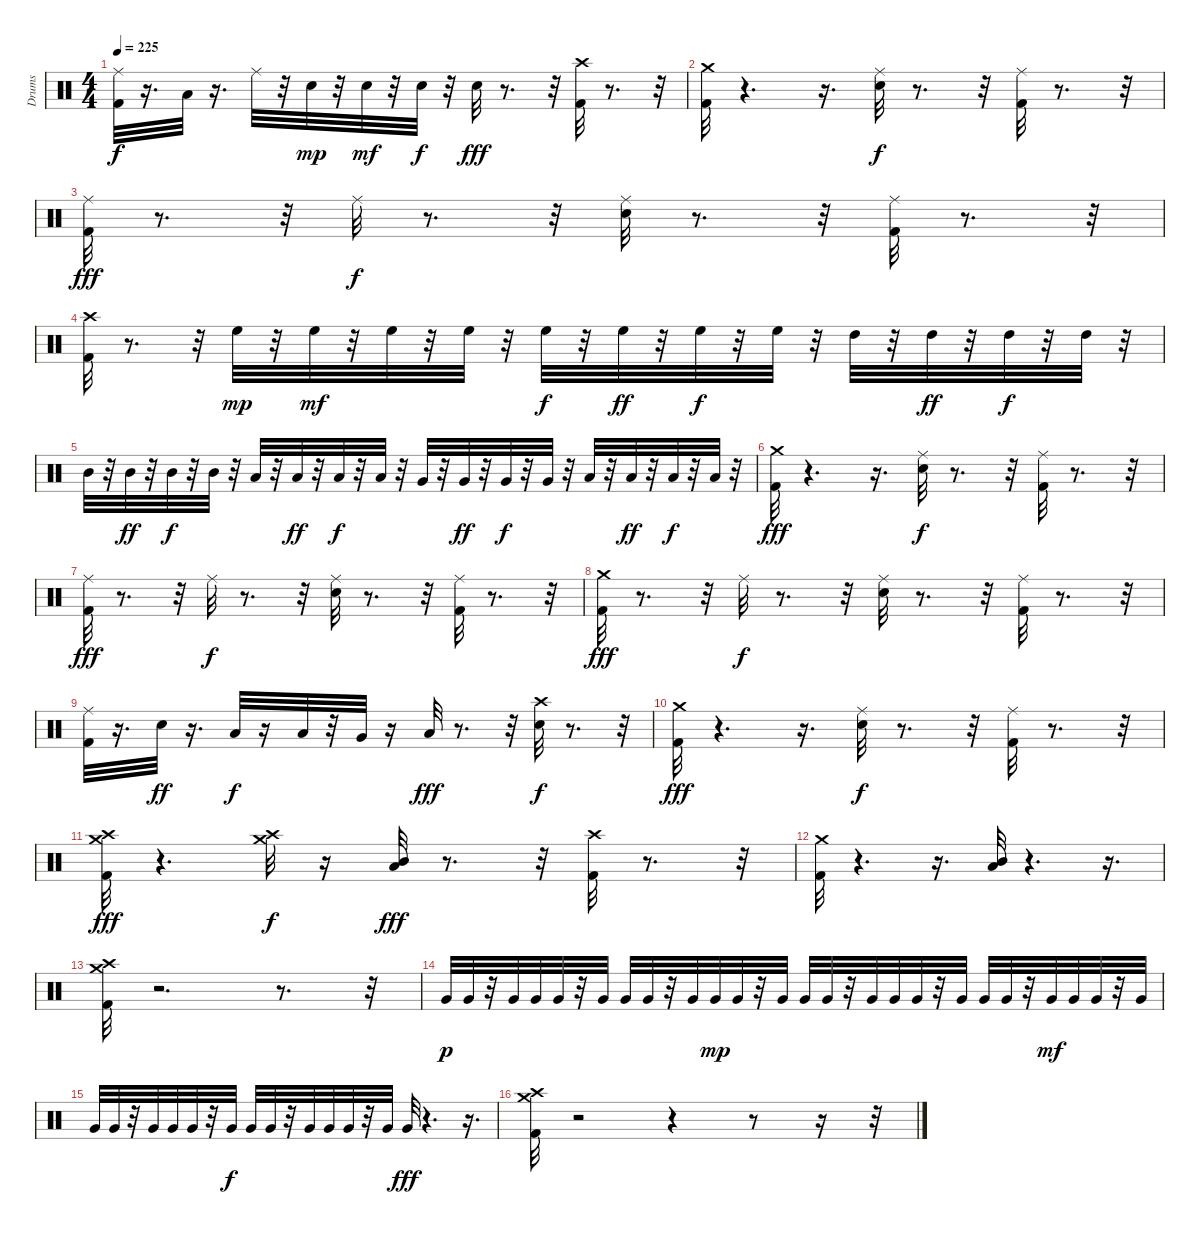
\track ("Drums" "Drums") {instrument percussion}
\staff {score}
\articulation defaults
\ts (4 4)
\tempo 225
\clef neutral
\ks c
("Kick (hit) 2" "Ride (middle)").32{dy f} r.16{d} "Low Floor Tom (hit)".32 r.16{d} "Ride (middle)".32 r.32 "Snare (hit) 2".32{dy mp} r.32 "Snare (hit) 2".32{dy mf} r.32 "Snare (hit) 2".32{dy f} r.32 "Snare (hit) 2".32{dy fff} r.8{d} r.32 ("Crash high (hit)" "Kick (hit) 2").32 r.8{d} r.32 |
("Crash medium (hit)" "Kick (hit) 2").32 r.4{d} r.16{d} ("Ride (middle)" "Snare (hit) 2").32{dy f} r.8{d} r.32 ("Kick (hit) 2" "Ride (middle)").32 r.8{d} r.32 |
("Kick (hit) 2" "Ride (middle)").32{dy fff} r.8{d} r.32 "Ride (middle)".32{dy f} r.8{d} r.32 ("Snare (hit) 2" "Ride (middle)").32 r.8{d} r.32 ("Kick (hit) 2" "Ride (middle)").32 r.8{d} r.32 |
("Crash high (hit)" "Kick (hit) 2").32 r.8{d} r.32 "High Floor Tom (hit)".32{dy mp} r.32 "High Floor Tom (hit)".32{dy mf} r.32 "High Floor Tom (hit)".32 r.32 "High Floor Tom (hit)".32 r.32 "High Floor Tom (hit)".32{dy f} r.32 "High Floor Tom (hit)".32{dy ff} r.32 "High Floor Tom (hit)".32{dy f} r.32 "High Floor Tom (hit)".32 r.32 "High Tom (hit)".32 r.32 "High Tom (hit)".32{dy ff} r.32 "High Tom (hit)".32{dy f} r.32 "High Tom (hit)".32 r.32 |
"Mid Tom (hit)".32 r.32 "Mid Tom (hit)".32{dy ff} r.32 "Mid Tom (hit)".32{dy f} r.32 "Mid Tom (hit)".32 r.32 "Low Tom (hit)".32 r.32 "Low Tom (hit)".32{dy ff} r.32 "Low Tom (hit)".32{dy f} r.32 "Low Tom (hit)".32 r.32 "Very Low Tom (hit)".32 r.32 "Very Low Tom (hit)".32{dy ff} r.32 "Very Low Tom (hit)".32{dy f} r.32 "Very Low Tom (hit)".32 r.32 "Low Floor Tom (hit)".32 r.32 "Low Floor Tom (hit)".32{dy ff} r.32 "Low Floor Tom (hit)".32{dy f} r.32 "Low Floor Tom (hit)".32 r.32 |
("Crash medium (hit)" "Kick (hit) 2").32{dy fff} r.4{d} r.16{d} ("Snare (hit) 2" "Ride (middle)").32{dy f} r.8{d} r.32 ("Kick (hit) 2" "Ride (middle)").32 r.8{d} r.32 |
("Kick (hit) 2" "Ride (middle)").32{dy fff} r.8{d} r.32 "Ride (middle)".32{dy f} r.8{d} r.32 ("Snare (hit) 2" "Ride (middle)").32 r.8{d} r.32 ("Kick (hit) 2" "Ride (middle)").32 r.8{d} r.32 |
("Crash medium (hit)" "Kick (hit) 2").32{dy fff} r.8{d} r.32 "Ride (middle)".32{dy f} r.8{d} r.32 ("Snare (hit) 2" "Ride (middle)").32 r.8{d} r.32 ("Kick (hit) 2" "Ride (middle)").32 r.8{d} r.32 |
("Kick (hit) 2" "Ride (middle)").32 r.16{d} "Snare (hit) 2".32{dy ff} r.16{d} "Low Tom (hit)".32{dy f} r.16 "Low Tom (hit)".32 r.32 "Very Low Tom (hit)".32 r.16 "Low Floor Tom (hit)".32{dy fff} r.8{d} r.32 ("Snare (hit) 2" "Crash high (hit)").32{dy f} r.8{d} r.32 |
("Crash medium (hit)" "Kick (hit) 2").32{dy fff} r.4{d} r.16{d} ("Ride (middle)" "Snare (hit) 2").32{dy f} r.8{d} r.32 ("Kick (hit) 2" "Ride (middle)").32 r.8{d} r.32 |
("Crash medium (hit)" "Crash high (hit)" "Kick (hit) 2").32{dy fff} r.4{d} ("Crash medium (hit)" "Crash high (hit)").32{dy f} r.16 ("Mid Tom (hit)" "Low Floor Tom (hit)").32{dy fff} r.8{d} r.32 ("Crash high (hit)" "Kick (hit) 2").32 r.8{d} r.32 |
("Crash medium (hit)" "Kick (hit) 2").32 r.4{d} r.16{d} ("Low Floor Tom (hit)" "Mid Tom (hit)").32 r.4{d} r.16{d} |
("Crash medium (hit)" "Crash high (hit)" "Kick (hit) 2").32 r.2{d} r.8{d} r.32 |
"Very Low Tom (hit)".32{dy p} "Very Low Tom (hit)".32 r.32 "Very Low Tom (hit)".32 "Very Low Tom (hit)".32 "Very Low Tom (hit)".32 r.32 "Very Low Tom (hit)".32 "Very Low Tom (hit)".32 "Very Low Tom (hit)".32 r.32 "Very Low Tom (hit)".32 "Very Low Tom (hit)".32{dy mp} "Very Low Tom (hit)".32 r.32 "Very Low Tom (hit)".32 "Very Low Tom (hit)".32 "Very Low Tom (hit)".32 r.32 "Very Low Tom (hit)".32 "Very Low Tom (hit)".32 "Very Low Tom (hit)".32 r.32 "Very Low Tom (hit)".32 "Very Low Tom (hit)".32 "Very Low Tom (hit)".32 r.32 "Very Low Tom (hit)".32{dy mf} "Very Low Tom (hit)".32 "Very Low Tom (hit)".32 r.32 "Very Low Tom (hit)".32 |
"Very Low Tom (hit)".32 "Very Low Tom (hit)".32 r.32 "Very Low Tom (hit)".32 "Very Low Tom (hit)".32 "Very Low Tom (hit)".32 r.32 "Very Low Tom (hit)".32{dy f} "Very Low Tom (hit)".32 "Very Low Tom (hit)".32 r.32 "Very Low Tom (hit)".32 "Very Low Tom (hit)".32 "Very Low Tom (hit)".32 r.32 "Very Low Tom (hit)".32 "Very Low Tom (hit)".32{dy fff} r.4{d} r.16{d} |
("Crash medium (hit)" "Crash high (hit)" "Kick (hit) 2").32 r.2 r.4 r.8 r.16 r.32
